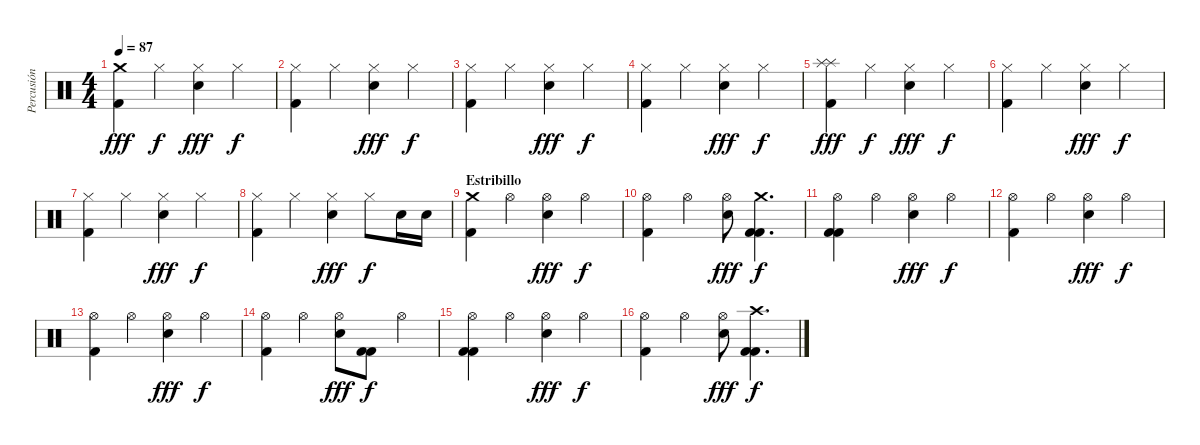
\track ("Percusión" "Percusión") {instrument percussion}
\staff {score}
\articulation defaults
\ts (4 4)
\tempo 87
\clef neutral
\ks c
("Crash medium (hit)" "Kick (hit) 2").4{dy fff} "Hi-Hat (closed)".4{dy f} ("Hi-Hat (closed)" "Snare (hit) 2").4{dy fff} "Hi-Hat (closed)".4{dy f} |
("Hi-Hat (closed)" "Kick (hit) 2").4 "Hi-Hat (closed)".4 ("Hi-Hat (closed)" "Snare (hit) 2").4{dy fff} "Hi-Hat (closed)".4{dy f} |
("Hi-Hat (closed)" "Kick (hit) 2").4 "Hi-Hat (closed)".4 ("Hi-Hat (closed)" "Snare (hit) 2").4{dy fff} "Hi-Hat (closed)".4{dy f} |
("Hi-Hat (closed)" "Kick (hit) 2").4 "Hi-Hat (closed)".4 ("Hi-Hat (closed)" "Snare (hit) 2").4{dy fff} "Hi-Hat (closed)".4{dy f} |
("Splash (hit)" "Splash (hit)" "Kick (hit) 2").4{dy fff} "Hi-Hat (closed)".4{dy f} ("Hi-Hat (closed)" "Snare (hit) 2").4{dy fff} "Hi-Hat (closed)".4{dy f} |
("Hi-Hat (closed)" "Kick (hit) 2").4 "Hi-Hat (closed)".4 ("Hi-Hat (closed)" "Snare (hit) 2").4{dy fff} "Hi-Hat (closed)".4{dy f} |
("Hi-Hat (closed)" "Kick (hit) 2").4 "Hi-Hat (closed)".4 ("Hi-Hat (closed)" "Snare (hit) 2").4{dy fff} "Hi-Hat (closed)".4{dy f} |
("Hi-Hat (closed)" "Kick (hit) 2").4 "Hi-Hat (closed)".4 ("Hi-Hat (closed)" "Snare (hit) 2").4{dy fff} "Hi-Hat (closed)".8{dy f} "Snare (hit) 2".16 "Snare (hit) 2".16 |
\section ("" "Estribillo")
("Crash medium (hit)" "Kick (hit) 2").4 "Hi-Hat (open)".4 ("Hi-Hat (open)" "Snare (hit) 2").4{dy fff} "Hi-Hat (open)".4{dy f} |
("Hi-Hat (open)" "Kick (hit) 2").4 "Hi-Hat (open)".4 ("Hi-Hat (open)" "Snare (hit) 2").8{dy fff} ("Crash medium (hit)" "Kick (hit) 2" "Kick (hit) 2").4{d dy f} |
("Hi-Hat (open)" "Kick (hit) 2" "Kick (hit) 2").4 "Hi-Hat (open)".4 ("Hi-Hat (open)" "Snare (hit) 2").4{dy fff} "Hi-Hat (open)".4{dy f} |
("Hi-Hat (open)" "Kick (hit) 2").4 "Hi-Hat (open)".4 ("Hi-Hat (open)" "Snare (hit) 2").4{dy fff} "Hi-Hat (open)".4{dy f} |
("Hi-Hat (open)" "Kick (hit) 2").4 "Hi-Hat (open)".4 ("Hi-Hat (open)" "Snare (hit) 2").4{dy fff} "Hi-Hat (open)".4{dy f} |
("Hi-Hat (open)" "Kick (hit) 2").4 "Hi-Hat (open)".4 ("Hi-Hat (open)" "Snare (hit) 2").8{dy fff} ("Kick (hit) 2" "Kick (hit) 2").8{dy f} "Hi-Hat (open)".4 |
("Hi-Hat (open)" "Kick (hit) 2" "Kick (hit) 2").4 "Hi-Hat (open)".4 ("Hi-Hat (open)" "Snare (hit) 2").4{dy fff} "Hi-Hat (open)".4{dy f} |
("Hi-Hat (open)" "Kick (hit) 2").4 "Hi-Hat (open)".4 ("Hi-Hat (open)" "Snare (hit) 2").8{dy fff} ("Crash high (hit)" "Kick (hit) 2" "Kick (hit) 2").4{d dy f}
